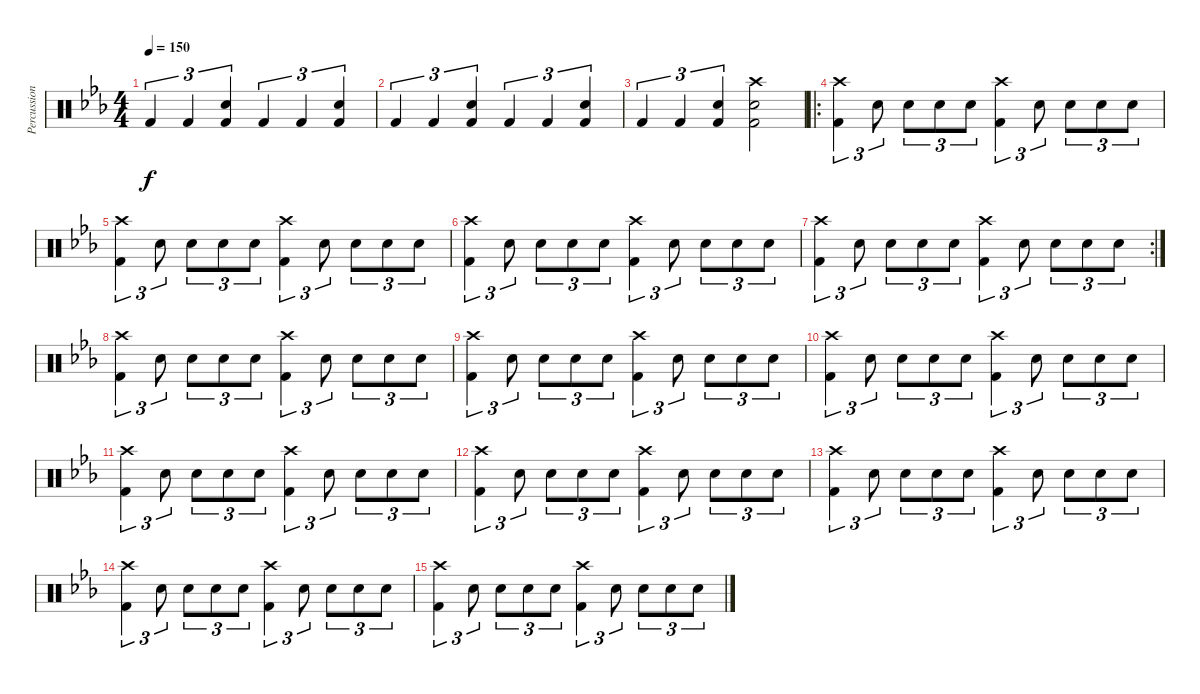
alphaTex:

\track ("Percussion" "Percussion") {instrument percussion}
\staff {score}
\articulation defaults
\ts (4 4)
\tempo 150
\clef neutral
\ks cminor "Kick (hit) 2".4{tu (3 2) dy f} "Kick (hit) 2".4{tu (3 2)}
("Snare (hit) 2" "Kick (hit) 2").4{tu (3 2)} "Kick (hit) 2".4{tu (3 2)} "Kick (hit) 2".4{tu (3 2)} ("Snare (hit) 2" "Kick (hit) 2").4{tu (3 2)} |
"Kick (hit) 2".4{tu (3 2)} "Kick (hit) 2".4{tu (3 2)} ("Snare (hit) 2" "Kick (hit) 2").4{tu (3 2)} "Kick (hit) 2".4{tu (3 2)} "Kick (hit) 2".4{tu (3 2)} ("Snare (hit) 2" "Kick (hit) 2").4{tu (3 2)} |
"Kick (hit) 2".4{tu (3 2)} "Kick (hit) 2".4{tu (3 2)} ("Snare (hit) 2" "Kick (hit) 2").4{tu (3 2)} ("Crash high (hit)" "Snare (hit) 2" "Kick (hit) 2").2 |
\ro
("Crash high (hit)" "Kick (hit) 2").4{tu (3 2)} "Snare (hit) 2".8{tu (3 2)} "Snare (hit) 2".8{tu (3 2)} "Snare (hit) 2".8{tu (3 2)} "Snare (hit) 2".8{tu (3 2)} ("Crash high (hit)" "Kick (hit) 2").4{tu (3 2)} "Snare (hit) 2".8{tu (3 2)} "Snare (hit) 2".8{tu (3 2)} "Snare (hit) 2".8{tu (3 2)} "Snare (hit) 2".8{tu (3 2)} |
("Crash high (hit)" "Kick (hit) 2").4{tu (3 2)} "Snare (hit) 2".8{tu (3 2)} "Snare (hit) 2".8{tu (3 2)} "Snare (hit) 2".8{tu (3 2)} "Snare (hit) 2".8{tu (3 2)} ("Crash high (hit)" "Kick (hit) 2").4{tu (3 2)} "Snare (hit) 2".8{tu (3 2)} "Snare (hit) 2".8{tu (3 2)} "Snare (hit) 2".8{tu (3 2)} "Snare (hit) 2".8{tu (3 2)} |
("Crash high (hit)" "Kick (hit) 2").4{tu (3 2)} "Snare (hit) 2".8{tu (3 2)} "Snare (hit) 2".8{tu (3 2)} "Snare (hit) 2".8{tu (3 2)} "Snare (hit) 2".8{tu (3 2)} ("Crash high (hit)" "Kick (hit) 2").4{tu (3 2)} "Snare (hit) 2".8{tu (3 2)} "Snare (hit) 2".8{tu (3 2)} "Snare (hit) 2".8{tu (3 2)} "Snare (hit) 2".8{tu (3 2)} |
\rc 2
("Crash high (hit)" "Kick (hit) 2").4{tu (3 2)} "Snare (hit) 2".8{tu (3 2)} "Snare (hit) 2".8{tu (3 2)} "Snare (hit) 2".8{tu (3 2)} "Snare (hit) 2".8{tu (3 2)} ("Crash high (hit)" "Kick (hit) 2").4{tu (3 2)} "Snare (hit) 2".8{tu (3 2)} "Snare (hit) 2".8{tu (3 2)} "Snare (hit) 2".8{tu (3 2)} "Snare (hit) 2".8{tu (3 2)} |
("Crash high (hit)" "Kick (hit) 2").4{tu (3 2)} "Snare (hit) 2".8{tu (3 2)} "Snare (hit) 2".8{tu (3 2)} "Snare (hit) 2".8{tu (3 2)} "Snare (hit) 2".8{tu (3 2)} ("Crash high (hit)" "Kick (hit) 2").4{tu (3 2)} "Snare (hit) 2".8{tu (3 2)} "Snare (hit) 2".8{tu (3 2)} "Snare (hit) 2".8{tu (3 2)} "Snare (hit) 2".8{tu (3 2)} |
("Crash high (hit)" "Kick (hit) 2").4{tu (3 2)} "Snare (hit) 2".8{tu (3 2)} "Snare (hit) 2".8{tu (3 2)} "Snare (hit) 2".8{tu (3 2)} "Snare (hit) 2".8{tu (3 2)} ("Crash high (hit)" "Kick (hit) 2").4{tu (3 2)} "Snare (hit) 2".8{tu (3 2)} "Snare (hit) 2".8{tu (3 2)} "Snare (hit) 2".8{tu (3 2)} "Snare (hit) 2".8{tu (3 2)} |
("Crash high (hit)" "Kick (hit) 2").4{tu (3 2)} "Snare (hit) 2".8{tu (3 2)} "Snare (hit) 2".8{tu (3 2)} "Snare (hit) 2".8{tu (3 2)} "Snare (hit) 2".8{tu (3 2)} ("Crash high (hit)" "Kick (hit) 2").4{tu (3 2)} "Snare (hit) 2".8{tu (3 2)} "Snare (hit) 2".8{tu (3 2)} "Snare (hit) 2".8{tu (3 2)} "Snare (hit) 2".8{tu (3 2)} |
("Crash high (hit)" "Kick (hit) 2").4{tu (3 2)} "Snare (hit) 2".8{tu (3 2)} "Snare (hit) 2".8{tu (3 2)} "Snare (hit) 2".8{tu (3 2)} "Snare (hit) 2".8{tu (3 2)} ("Crash high (hit)" "Kick (hit) 2").4{tu (3 2)} "Snare (hit) 2".8{tu (3 2)} "Snare (hit) 2".8{tu (3 2)} "Snare (hit) 2".8{tu (3 2)} "Snare (hit) 2".8{tu (3 2)} |
("Crash high (hit)" "Kick (hit) 2").4{tu (3 2)} "Snare (hit) 2".8{tu (3 2)} "Snare (hit) 2".8{tu (3 2)} "Snare (hit) 2".8{tu (3 2)} "Snare (hit) 2".8{tu (3 2)} ("Crash high (hit)" "Kick (hit) 2").4{tu (3 2)} "Snare (hit) 2".8{tu (3 2)} "Snare (hit) 2".8{tu (3 2)} "Snare (hit) 2".8{tu (3 2)} "Snare (hit) 2".8{tu (3 2)} |
("Crash high (hit)" "Kick (hit) 2").4{tu (3 2)} "Snare (hit) 2".8{tu (3 2)} "Snare (hit) 2".8{tu (3 2)} "Snare (hit) 2".8{tu (3 2)} "Snare (hit) 2".8{tu (3 2)} ("Crash high (hit)" "Kick (hit) 2").4{tu (3 2)} "Snare (hit) 2".8{tu (3 2)} "Snare (hit) 2".8{tu (3 2)} "Snare (hit) 2".8{tu (3 2)} "Snare (hit) 2".8{tu (3 2)} |
("Crash high (hit)" "Kick (hit) 2").4{tu (3 2)} "Snare (hit) 2".8{tu (3 2)} "Snare (hit) 2".8{tu (3 2)} "Snare (hit) 2".8{tu (3 2)} "Snare (hit) 2".8{tu (3 2)} ("Crash high (hit)" "Kick (hit) 2").4{tu (3 2)} "Snare (hit) 2".8{tu (3 2)} "Snare (hit) 2".8{tu (3 2)} "Snare (hit) 2".8{tu (3 2)} "Snare (hit) 2".8{tu (3 2)} |
("Crash high (hit)" "Kick (hit) 2").4{tu (3 2)} "Snare (hit) 2".8{tu (3 2)} "Snare (hit) 2".8{tu (3 2)} "Snare (hit) 2".8{tu (3 2)} "Snare (hit) 2".8{tu (3 2)} ("Crash high (hit)" "Kick (hit) 2").4{tu (3 2)} "Snare (hit) 2".8{tu (3 2)} "Snare (hit) 2".8{tu (3 2)} "Snare (hit) 2".8{tu (3 2)} "Snare (hit) 2".8{tu (3 2)}
